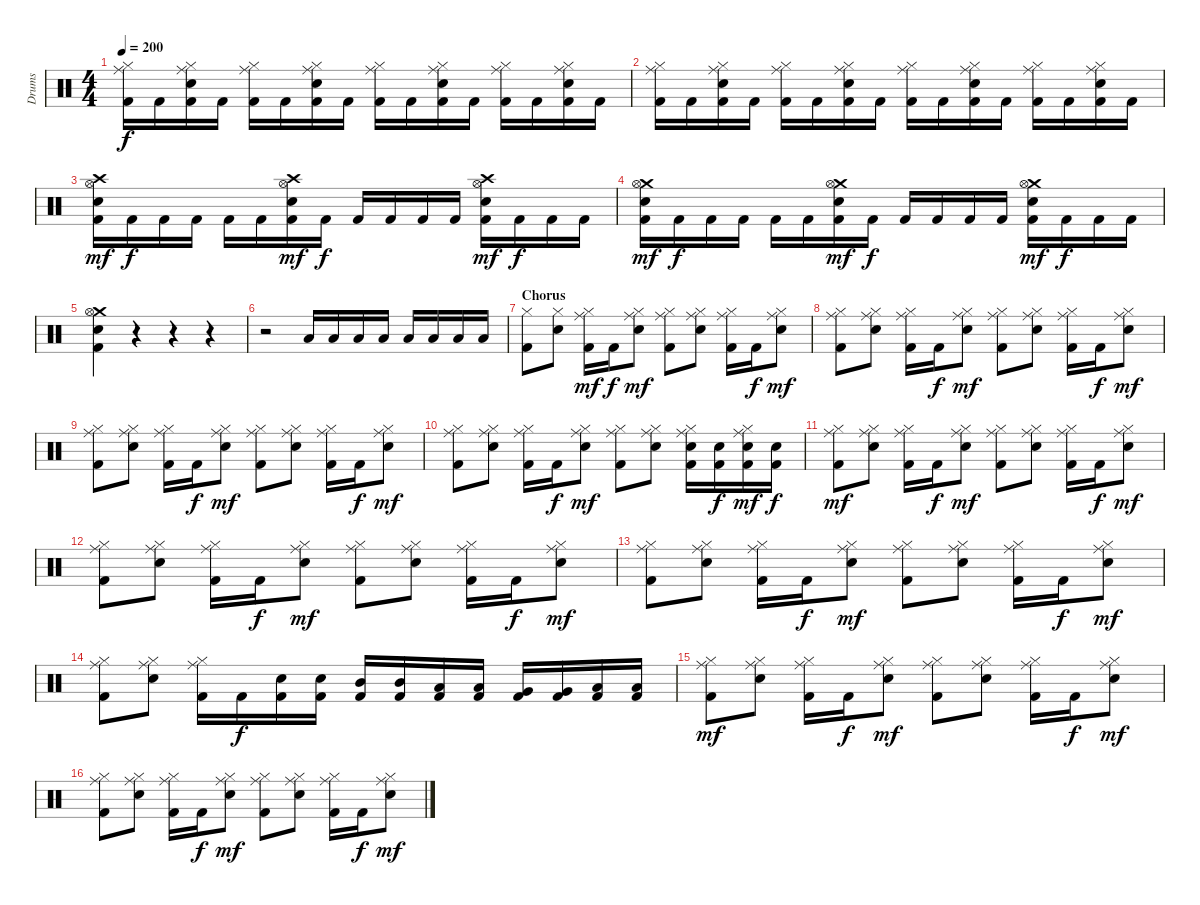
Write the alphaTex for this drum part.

\track ("Drums" "Drums") {instrument percussion}
\staff {score}
\articulation defaults
\ts (4 4)
\tempo 200
\clef neutral
\ks c
("Hi-Hat (closed)" "Ride (middle)" "Kick (hit) 2").16{dy f} "Kick (hit) 2".16 ("Hi-Hat (closed)" "Ride (middle)" "Snare (hit) 2" "Kick (hit) 2").16 "Kick (hit) 2".16 ("Hi-Hat (closed)" "Ride (middle)" "Kick (hit) 2").16 "Kick (hit) 2".16 ("Hi-Hat (closed)" "Ride (middle)" "Snare (hit) 2" "Kick (hit) 2").16 "Kick (hit) 2".16 ("Hi-Hat (closed)" "Ride (middle)" "Kick (hit) 2").16 "Kick (hit) 2".16 ("Hi-Hat (closed)" "Ride (middle)" "Snare (hit) 2" "Kick (hit) 2").16 "Kick (hit) 2".16 ("Hi-Hat (closed)" "Ride (middle)" "Kick (hit) 2").16 "Kick (hit) 2".16 ("Hi-Hat (closed)" "Ride (middle)" "Snare (hit) 2" "Kick (hit) 2").16 "Kick (hit) 2".16 |
("Hi-Hat (closed)" "Ride (middle)" "Kick (hit) 2").16 "Kick (hit) 2".16 ("Hi-Hat (closed)" "Ride (middle)" "Snare (hit) 2" "Kick (hit) 2").16 "Kick (hit) 2".16 ("Hi-Hat (closed)" "Ride (middle)" "Kick (hit) 2").16 "Kick (hit) 2".16 ("Hi-Hat (closed)" "Ride (middle)" "Snare (hit) 2" "Kick (hit) 2").16 "Kick (hit) 2".16 ("Hi-Hat (closed)" "Ride (middle)" "Kick (hit) 2").16 "Kick (hit) 2".16 ("Hi-Hat (closed)" "Ride (middle)" "Snare (hit) 2" "Kick (hit) 2").16 "Kick (hit) 2".16 ("Hi-Hat (closed)" "Ride (middle)" "Kick (hit) 2").16 "Kick (hit) 2".16 ("Hi-Hat (closed)" "Ride (middle)" "Snare (hit) 2" "Kick (hit) 2").16 "Kick (hit) 2".16 |
("Crash high (hit)" "Hi-Hat (open)" "Snare (hit) 2" "Kick (hit) 2").16{dy mf} "Kick (hit) 2".16{dy f} "Kick (hit) 2".16 "Kick (hit) 2".16 "Kick (hit) 2".16 "Kick (hit) 2".16 ("Crash high (hit)" "Hi-Hat (open)" "Snare (hit) 2" "Kick (hit) 2").16{dy mf} "Kick (hit) 2".16{dy f} "Kick (hit) 2".16 "Kick (hit) 2".16 "Kick (hit) 2".16 "Kick (hit) 2".16 ("Crash high (hit)" "Hi-Hat (open)" "Snare (hit) 2" "Kick (hit) 2").16{dy mf} "Kick (hit) 2".16{dy f} "Kick (hit) 2".16 "Kick (hit) 2".16 |
("Crash medium (hit)" "Hi-Hat (open)" "Snare (hit) 2" "Kick (hit) 2").16{dy mf} "Kick (hit) 2".16{dy f} "Kick (hit) 2".16 "Kick (hit) 2".16 "Kick (hit) 2".16 "Kick (hit) 2".16 ("Crash medium (hit)" "Hi-Hat (open)" "Snare (hit) 2" "Kick (hit) 2").16{dy mf} "Kick (hit) 2".16{dy f} "Kick (hit) 2".16 "Kick (hit) 2".16 "Kick (hit) 2".16 "Kick (hit) 2".16 ("Crash medium (hit)" "Hi-Hat (open)" "Snare (hit) 2" "Kick (hit) 2").16{dy mf} "Kick (hit) 2".16{dy f} "Kick (hit) 2".16 "Kick (hit) 2".16 |
("Crash medium (hit)" "Hi-Hat (open)" "Snare (hit) 2" "Kick (hit) 2").4 r.4 r.4 r.4 |
r.2 "Low Tom (hit)".16 "Low Tom (hit)".16 "Low Tom (hit)".16 "Low Tom (hit)".16 "Low Floor Tom (hit)".16 "Low Floor Tom (hit)".16 "Low Floor Tom (hit)".16 "Low Floor Tom (hit)".16 |
\section ("" "Chorus")
("Hi-Hat (closed)" "Kick (hit) 2").8 ("Hi-Hat (closed)" "Snare (hit) 2").8 ("Hi-Hat (closed)" "Ride (middle)" "Kick (hit) 2").16{dy mf} "Kick (hit) 2".16{dy f} ("Hi-Hat (closed)" "Ride (middle)" "Snare (hit) 2").8{dy mf} ("Hi-Hat (closed)" "Ride (middle)" "Kick (hit) 2").8 ("Hi-Hat (closed)" "Ride (middle)" "Snare (hit) 2").8 ("Hi-Hat (closed)" "Ride (middle)" "Kick (hit) 2").16 "Kick (hit) 2".16{dy f} ("Hi-Hat (closed)" "Ride (middle)" "Snare (hit) 2").8{dy mf} |
("Hi-Hat (closed)" "Ride (middle)" "Kick (hit) 2").8 ("Hi-Hat (closed)" "Ride (middle)" "Snare (hit) 2").8 ("Hi-Hat (closed)" "Ride (middle)" "Kick (hit) 2").16 "Kick (hit) 2".16{dy f} ("Hi-Hat (closed)" "Ride (middle)" "Snare (hit) 2").8{dy mf} ("Hi-Hat (closed)" "Ride (middle)" "Kick (hit) 2").8 ("Hi-Hat (closed)" "Ride (middle)" "Snare (hit) 2").8 ("Hi-Hat (closed)" "Ride (middle)" "Kick (hit) 2").16 "Kick (hit) 2".16{dy f} ("Hi-Hat (closed)" "Ride (middle)" "Snare (hit) 2").8{dy mf} |
("Hi-Hat (closed)" "Ride (middle)" "Kick (hit) 2").8 ("Hi-Hat (closed)" "Ride (middle)" "Snare (hit) 2").8 ("Hi-Hat (closed)" "Ride (middle)" "Kick (hit) 2").16 "Kick (hit) 2".16{dy f} ("Hi-Hat (closed)" "Ride (middle)" "Snare (hit) 2").8{dy mf} ("Hi-Hat (closed)" "Ride (middle)" "Kick (hit) 2").8 ("Hi-Hat (closed)" "Ride (middle)" "Snare (hit) 2").8 ("Hi-Hat (closed)" "Ride (middle)" "Kick (hit) 2").16 "Kick (hit) 2".16{dy f} ("Hi-Hat (closed)" "Ride (middle)" "Snare (hit) 2").8{dy mf} |
("Hi-Hat (closed)" "Ride (middle)" "Kick (hit) 2").8 ("Hi-Hat (closed)" "Ride (middle)" "Snare (hit) 2").8 ("Hi-Hat (closed)" "Ride (middle)" "Kick (hit) 2").16 "Kick (hit) 2".16{dy f} ("Hi-Hat (closed)" "Ride (middle)" "Snare (hit) 2").8{dy mf} ("Hi-Hat (closed)" "Ride (middle)" "Kick (hit) 2").8 ("Hi-Hat (closed)" "Ride (middle)" "Snare (hit) 2").8 ("Hi-Hat (closed)" "Ride (middle)" "Snare (hit) 2" "Kick (hit) 2").16 ("Snare (hit) 2" "Kick (hit) 2").16{dy f} ("Hi-Hat (closed)" "Ride (middle)" "Snare (hit) 2" "Kick (hit) 2").16{dy mf} ("Snare (hit) 2" "Kick (hit) 2").16{dy f} |
("Hi-Hat (closed)" "Ride (middle)" "Kick (hit) 2").8{dy mf} ("Hi-Hat (closed)" "Ride (middle)" "Snare (hit) 2").8 ("Hi-Hat (closed)" "Ride (middle)" "Kick (hit) 2").16 "Kick (hit) 2".16{dy f} ("Hi-Hat (closed)" "Ride (middle)" "Snare (hit) 2").8{dy mf} ("Hi-Hat (closed)" "Ride (middle)" "Kick (hit) 2").8 ("Hi-Hat (closed)" "Ride (middle)" "Snare (hit) 2").8 ("Hi-Hat (closed)" "Ride (middle)" "Kick (hit) 2").16 "Kick (hit) 2".16{dy f} ("Hi-Hat (closed)" "Ride (middle)" "Snare (hit) 2").8{dy mf} |
("Hi-Hat (closed)" "Ride (middle)" "Kick (hit) 2").8 ("Hi-Hat (closed)" "Ride (middle)" "Snare (hit) 2").8 ("Hi-Hat (closed)" "Ride (middle)" "Kick (hit) 2").16 "Kick (hit) 2".16{dy f} ("Hi-Hat (closed)" "Ride (middle)" "Snare (hit) 2").8{dy mf} ("Hi-Hat (closed)" "Ride (middle)" "Kick (hit) 2").8 ("Hi-Hat (closed)" "Ride (middle)" "Snare (hit) 2").8 ("Hi-Hat (closed)" "Ride (middle)" "Kick (hit) 2").16 "Kick (hit) 2".16{dy f} ("Hi-Hat (closed)" "Ride (middle)" "Snare (hit) 2").8{dy mf} |
("Hi-Hat (closed)" "Ride (middle)" "Kick (hit) 2").8 ("Hi-Hat (closed)" "Ride (middle)" "Snare (hit) 2").8 ("Hi-Hat (closed)" "Ride (middle)" "Kick (hit) 2").16 "Kick (hit) 2".16{dy f} ("Hi-Hat (closed)" "Ride (middle)" "Snare (hit) 2").8{dy mf} ("Hi-Hat (closed)" "Ride (middle)" "Kick (hit) 2").8 ("Hi-Hat (closed)" "Ride (middle)" "Snare (hit) 2").8 ("Hi-Hat (closed)" "Ride (middle)" "Kick (hit) 2").16 "Kick (hit) 2".16{dy f} ("Hi-Hat (closed)" "Ride (middle)" "Snare (hit) 2").8{dy mf} |
("Hi-Hat (closed)" "Ride (middle)" "Kick (hit) 2").8 ("Hi-Hat (closed)" "Ride (middle)" "Snare (hit) 2").8 ("Hi-Hat (closed)" "Ride (middle)" "Kick (hit) 2").16 "Kick (hit) 2".16{dy f} ("Snare (hit) 2" "Kick (hit) 2").16 ("Snare (hit) 2" "Kick (hit) 2").16 ("Mid Tom (hit)" "Kick (hit) 2").16 ("Mid Tom (hit)" "Kick (hit) 2").16 ("Low Tom (hit)" "Kick (hit) 2").16 ("Low Tom (hit)" "Kick (hit) 2").16 ("Very Low Tom (hit)" "Kick (hit) 2").16 ("Very Low Tom (hit)" "Kick (hit) 2").16 ("Low Floor Tom (hit)" "Kick (hit) 2").16 ("Low Floor Tom (hit)" "Kick (hit) 2").16 |
("Hi-Hat (closed)" "Ride (middle)" "Kick (hit) 2").8{dy mf} ("Hi-Hat (closed)" "Ride (middle)" "Snare (hit) 2").8 ("Hi-Hat (closed)" "Ride (middle)" "Kick (hit) 2").16 "Kick (hit) 2".16{dy f} ("Hi-Hat (closed)" "Ride (middle)" "Snare (hit) 2").8{dy mf} ("Hi-Hat (closed)" "Ride (middle)" "Kick (hit) 2").8 ("Hi-Hat (closed)" "Ride (middle)" "Snare (hit) 2").8 ("Hi-Hat (closed)" "Ride (middle)" "Kick (hit) 2").16 "Kick (hit) 2".16{dy f} ("Hi-Hat (closed)" "Ride (middle)" "Snare (hit) 2").8{dy mf} |
("Hi-Hat (closed)" "Ride (middle)" "Kick (hit) 2").8 ("Hi-Hat (closed)" "Ride (middle)" "Snare (hit) 2").8 ("Hi-Hat (closed)" "Ride (middle)" "Kick (hit) 2").16 "Kick (hit) 2".16{dy f} ("Hi-Hat (closed)" "Ride (middle)" "Snare (hit) 2").8{dy mf} ("Hi-Hat (closed)" "Ride (middle)" "Kick (hit) 2").8 ("Hi-Hat (closed)" "Ride (middle)" "Snare (hit) 2").8 ("Hi-Hat (closed)" "Ride (middle)" "Kick (hit) 2").16 "Kick (hit) 2".16{dy f} ("Hi-Hat (closed)" "Ride (middle)" "Snare (hit) 2").8{dy mf}
